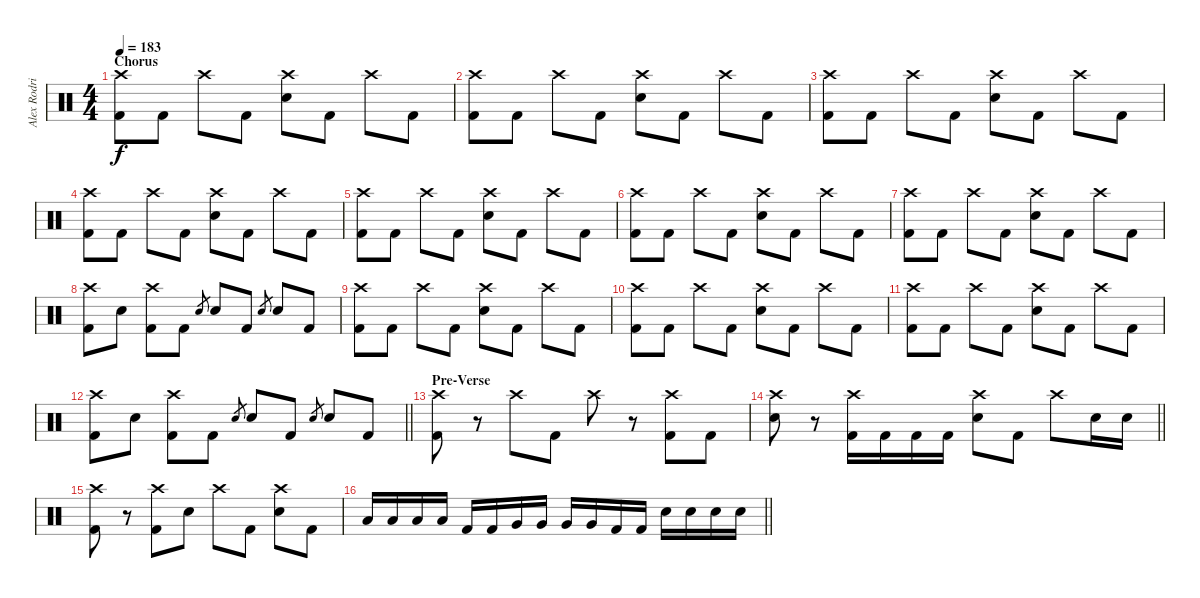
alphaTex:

\track ("Alex Rodriguez [Not Finished Yet]" "Alex Rodri") {mute instrument percussion}
\staff {score}
\articulation defaults
\ts (4 4)
\section ("" "Chorus")
\tempo 183
\clef neutral
\ks c
("Crash high (hit)" "Kick (hit) 2").8{dy f} "Kick (hit) 2".8 "Crash high (hit)".8 "Kick (hit) 2".8 ("Crash high (hit)" "Electric Snare (hit)").8 "Kick (hit) 2".8 "Crash high (hit)".8 "Kick (hit) 2".8 |
("Crash high (hit)" "Kick (hit) 2").8 "Kick (hit) 2".8 "Crash high (hit)".8 "Kick (hit) 2".8 ("Crash high (hit)" "Electric Snare (hit)").8 "Kick (hit) 2".8 "Crash high (hit)".8 "Kick (hit) 2".8 |
("Crash high (hit)" "Kick (hit) 2").8 "Kick (hit) 2".8 "Crash high (hit)".8 "Kick (hit) 2".8 ("Crash high (hit)" "Electric Snare (hit)").8 "Kick (hit) 2".8 "Crash high (hit)".8 "Kick (hit) 2".8 |
("Crash high (hit)" "Kick (hit) 2").8 "Kick (hit) 2".8 "Crash high (hit)".8 "Kick (hit) 2".8 ("Crash high (hit)" "Electric Snare (hit)").8 "Kick (hit) 2".8 "Crash high (hit)".8 "Kick (hit) 2".8 |
("Crash high (hit)" "Kick (hit) 2").8 "Kick (hit) 2".8 "Crash high (hit)".8 "Kick (hit) 2".8 ("Crash high (hit)" "Electric Snare (hit)").8 "Kick (hit) 2".8 "Crash high (hit)".8 "Kick (hit) 2".8 |
("Crash high (hit)" "Kick (hit) 2").8 "Kick (hit) 2".8 "Crash high (hit)".8 "Kick (hit) 2".8 ("Crash high (hit)" "Electric Snare (hit)").8 "Kick (hit) 2".8 "Crash high (hit)".8 "Kick (hit) 2".8 |
("Crash high (hit)" "Kick (hit) 2").8 "Kick (hit) 2".8 "Crash high (hit)".8 "Kick (hit) 2".8 ("Crash high (hit)" "Electric Snare (hit)").8 "Kick (hit) 2".8 "Crash high (hit)".8 "Kick (hit) 2".8 |
("Crash high (hit)" "Kick (hit) 2").8 "Electric Snare (hit)".8 ("Crash high (hit)" "Kick (hit) 2").8 "Kick (hit) 2".8 "Electric Snare (hit)".8{gr} "Electric Snare (hit)".8 "Kick (hit) 2".8 "Electric Snare (hit)".8{gr} "Electric Snare (hit)".8 "Kick (hit) 2".8 |
("Crash high (hit)" "Kick (hit) 2").8 "Kick (hit) 2".8 "Crash high (hit)".8 "Kick (hit) 2".8 ("Crash high (hit)" "Electric Snare (hit)").8 "Kick (hit) 2".8 "Crash high (hit)".8 "Kick (hit) 2".8 |
("Crash high (hit)" "Kick (hit) 2").8 "Kick (hit) 2".8 "Crash high (hit)".8 "Kick (hit) 2".8 ("Crash high (hit)" "Electric Snare (hit)").8 "Kick (hit) 2".8 "Crash high (hit)".8 "Kick (hit) 2".8 |
("Crash high (hit)" "Kick (hit) 2").8 "Kick (hit) 2".8 "Crash high (hit)".8 "Kick (hit) 2".8 ("Crash high (hit)" "Electric Snare (hit)").8 "Kick (hit) 2".8 "Crash high (hit)".8 "Kick (hit) 2".8 |
\barLineRight lightlight
("Crash high (hit)" "Kick (hit) 2").8 "Electric Snare (hit)".8 ("Crash high (hit)" "Kick (hit) 2").8 "Kick (hit) 2".8 "Electric Snare (hit)".8{gr} "Electric Snare (hit)".8 "Kick (hit) 2".8 "Electric Snare (hit)".8{gr} "Electric Snare (hit)".8 "Kick (hit) 2".8 |
\section ("" "Pre-Verse")
("Crash high (hit)" "Kick (hit) 2").8 r.8 "Crash high (hit)".8 "Kick (hit) 2".8 "Crash high (hit)".8 r.8 ("Crash high (hit)" "Kick (hit) 2").8 "Kick (hit) 2".8 |
\barLineRight lightlight
("Crash high (hit)" "Electric Snare (hit)").8 r.8 ("Crash high (hit)" "Kick (hit) 2").16 "Kick (hit) 2".16 "Kick (hit) 2".16 "Kick (hit) 2".16 ("Crash high (hit)" "Electric Snare (hit)").8 "Kick (hit) 2".8 "Crash high (hit)".8 "Electric Snare (hit)".16 "Electric Snare (hit)".16 |
("Crash high (hit)" "Kick (hit) 2").8 r.8 ("Crash high (hit)" "Kick (hit) 2").8 "Electric Snare (hit)".8 "Crash high (hit)".8 "Kick (hit) 2".8 ("Crash high (hit)" "Electric Snare (hit)").8 "Kick (hit) 2".8 |
\barLineRight lightlight "Low Tom (hit)".16 "Low Tom (hit)".16 "Low Tom (hit)".16 "Low Tom (hit)".16 "Kick (hit) 2".16 "Kick (hit) 2".16 "Very Low Tom (hit)".16 "Very Low Tom (hit)".16 "Very Low Tom (hit)".16 "Very Low Tom (hit)".16 "Kick (hit) 2".16 "Kick (hit) 2".16 "Electric Snare (hit)".16 "Electric Snare (hit)".16 "Electric Snare (hit)".16 "Electric Snare (hit)".16
